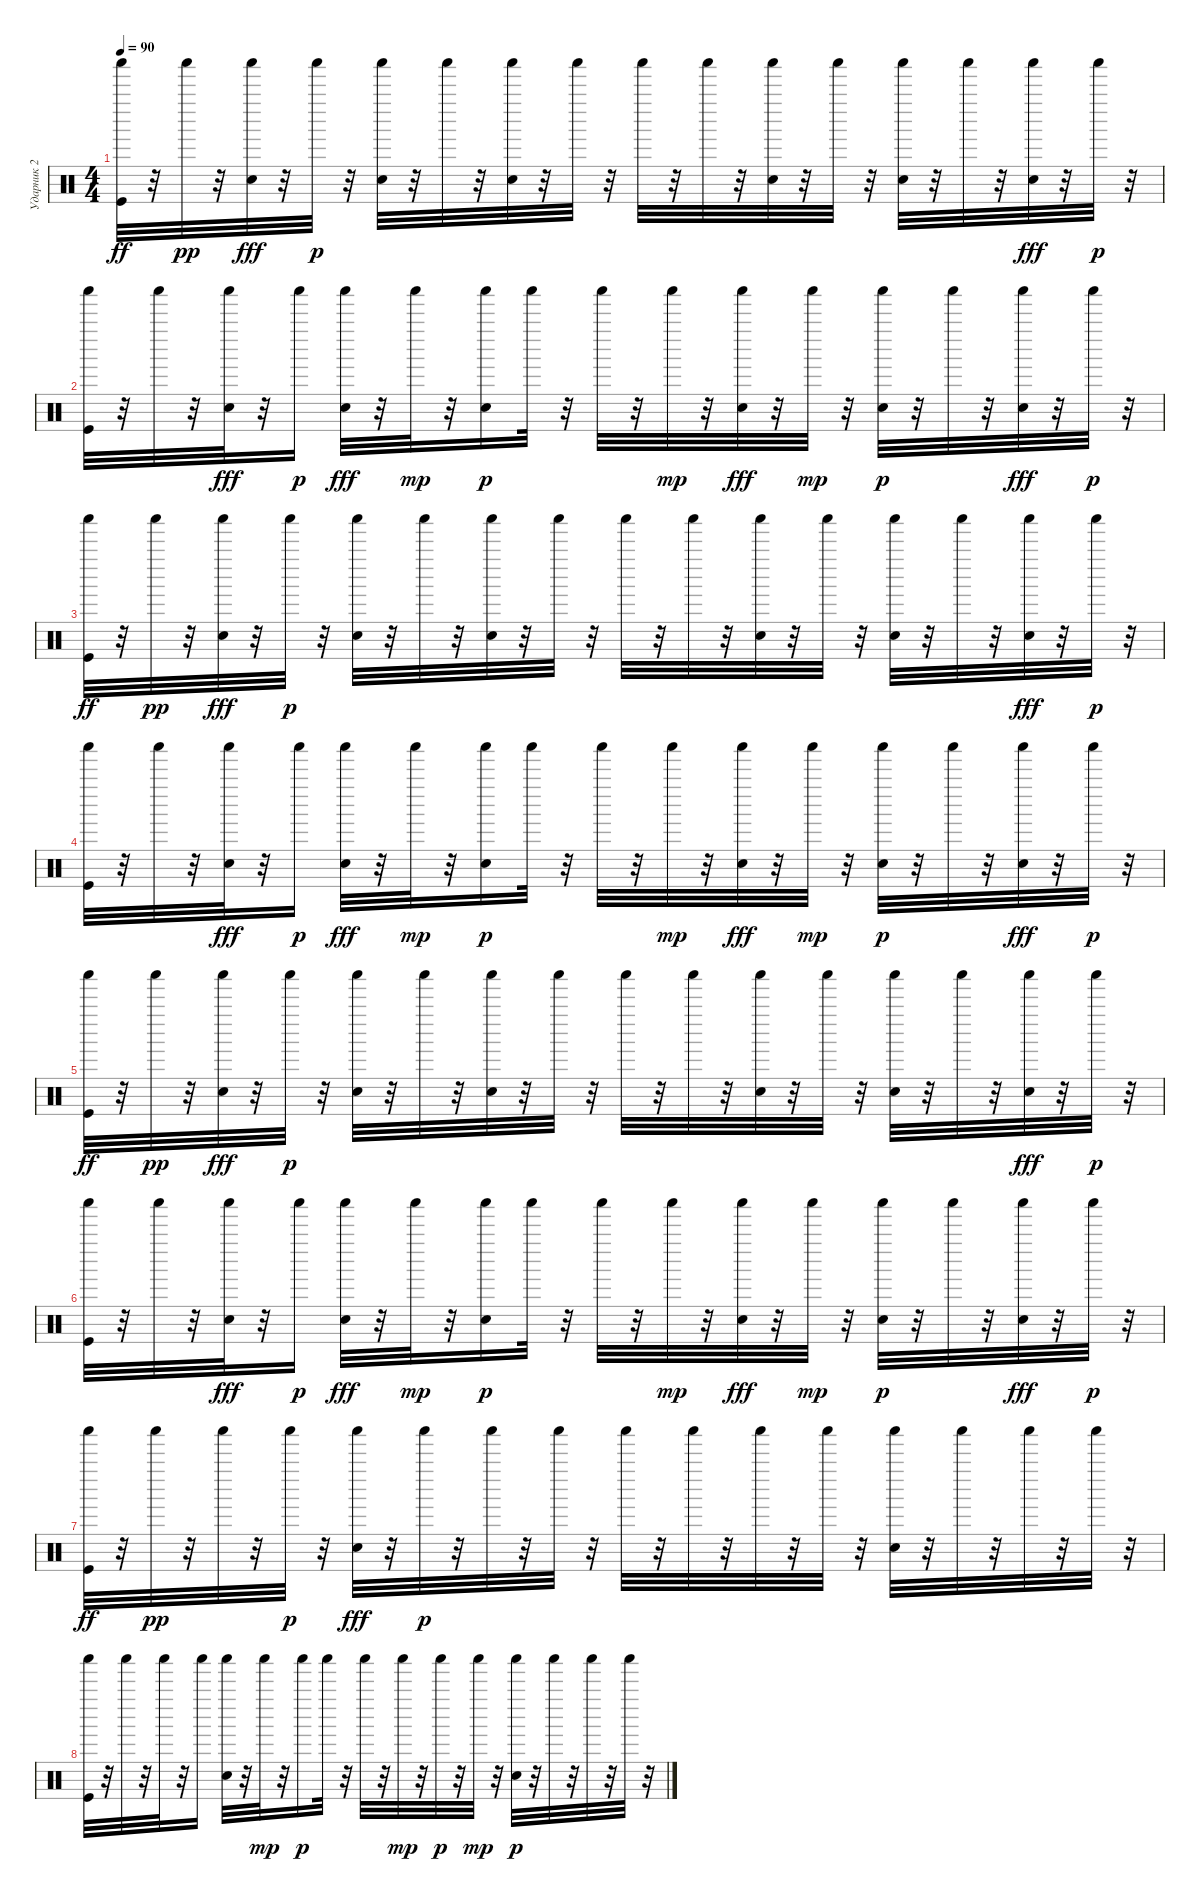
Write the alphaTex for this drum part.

\track ("Ударник 2" "Ударник 2") {instrument percussion}
\staff {score}
\articulation defaults
\ts (4 4)
\tempo 90
\clef neutral
\ks c
("Shaker (hit)" "Kick (hit)").32{dy ff} r.32 "Shaker (hit)".32{dy pp} r.32 ("Shaker (hit)" "Snare (hit)").32{dy fff} r.32 "Shaker (hit)".32{dy p} r.32 ("Electric Snare (hit)" "Shaker (hit)").32 r.32 "Shaker (hit)".32 r.32 ("Snare (hit)" "Shaker (hit)").32 r.32 "Shaker (hit)".32 r.32 "Shaker (hit)".32 r.32 "Shaker (hit)".32 r.32 ("Snare (hit)" "Shaker (hit)").32 r.32 "Shaker (hit)".32 r.32 ("Electric Snare (hit)" "Shaker (hit)").32 r.32 "Shaker (hit)".32 r.32 ("Shaker (hit)" "Snare (hit)").32{dy fff} r.32 "Shaker (hit)".32{dy p} r.32 |
("Kick (hit)" "Shaker (hit)").32 r.32 "Shaker (hit)".32 r.32 ("Shaker (hit)" "Snare (hit)").32{dy fff} r.32 "Shaker (hit)".16{dy p} ("Shaker (hit)" "Electric Snare (hit)").32{dy fff} r.32 "Shaker (hit)".32{dy mp} r.32 ("Snare (hit)" "Shaker (hit)").16{dy p} "Shaker (hit)".32 r.32 "Shaker (hit)".32 r.32 "Shaker (hit)".32{dy mp} r.32 ("Shaker (hit)" "Snare (hit)").32{dy fff} r.32 "Shaker (hit)".32{dy mp} r.32 ("Electric Snare (hit)" "Shaker (hit)").32{dy p} r.32 "Shaker (hit)".32 r.32 ("Shaker (hit)" "Snare (hit)").32{dy fff} r.32 "Shaker (hit)".32{dy p} r.32 |
("Shaker (hit)" "Kick (hit)").32{dy ff} r.32 "Shaker (hit)".32{dy pp} r.32 ("Shaker (hit)" "Snare (hit)").32{dy fff} r.32 "Shaker (hit)".32{dy p} r.32 ("Electric Snare (hit)" "Shaker (hit)").32 r.32 "Shaker (hit)".32 r.32 ("Snare (hit)" "Shaker (hit)").32 r.32 "Shaker (hit)".32 r.32 "Shaker (hit)".32 r.32 "Shaker (hit)".32 r.32 ("Snare (hit)" "Shaker (hit)").32 r.32 "Shaker (hit)".32 r.32 ("Electric Snare (hit)" "Shaker (hit)").32 r.32 "Shaker (hit)".32 r.32 ("Shaker (hit)" "Snare (hit)").32{dy fff} r.32 "Shaker (hit)".32{dy p} r.32 |
("Kick (hit)" "Shaker (hit)").32 r.32 "Shaker (hit)".32 r.32 ("Shaker (hit)" "Snare (hit)").32{dy fff} r.32 "Shaker (hit)".16{dy p} ("Shaker (hit)" "Electric Snare (hit)").32{dy fff} r.32 "Shaker (hit)".32{dy mp} r.32 ("Snare (hit)" "Shaker (hit)").16{dy p} "Shaker (hit)".32 r.32 "Shaker (hit)".32 r.32 "Shaker (hit)".32{dy mp} r.32 ("Shaker (hit)" "Snare (hit)").32{dy fff} r.32 "Shaker (hit)".32{dy mp} r.32 ("Electric Snare (hit)" "Shaker (hit)").32{dy p} r.32 "Shaker (hit)".32 r.32 ("Shaker (hit)" "Snare (hit)").32{dy fff} r.32 "Shaker (hit)".32{dy p} r.32 |
("Shaker (hit)" "Kick (hit)").32{dy ff} r.32 "Shaker (hit)".32{dy pp} r.32 ("Shaker (hit)" "Snare (hit)").32{dy fff} r.32 "Shaker (hit)".32{dy p} r.32 ("Electric Snare (hit)" "Shaker (hit)").32 r.32 "Shaker (hit)".32 r.32 ("Snare (hit)" "Shaker (hit)").32 r.32 "Shaker (hit)".32 r.32 "Shaker (hit)".32 r.32 "Shaker (hit)".32 r.32 ("Snare (hit)" "Shaker (hit)").32 r.32 "Shaker (hit)".32 r.32 ("Electric Snare (hit)" "Shaker (hit)").32 r.32 "Shaker (hit)".32 r.32 ("Shaker (hit)" "Snare (hit)").32{dy fff} r.32 "Shaker (hit)".32{dy p} r.32 |
("Kick (hit)" "Shaker (hit)").32 r.32 "Shaker (hit)".32 r.32 ("Shaker (hit)" "Snare (hit)").32{dy fff} r.32 "Shaker (hit)".16{dy p} ("Shaker (hit)" "Electric Snare (hit)").32{dy fff} r.32 "Shaker (hit)".32{dy mp} r.32 ("Snare (hit)" "Shaker (hit)").16{dy p} "Shaker (hit)".32 r.32 "Shaker (hit)".32 r.32 "Shaker (hit)".32{dy mp} r.32 ("Shaker (hit)" "Snare (hit)").32{dy fff} r.32 "Shaker (hit)".32{dy mp} r.32 ("Electric Snare (hit)" "Shaker (hit)").32{dy p} r.32 "Shaker (hit)".32 r.32 ("Shaker (hit)" "Snare (hit)").32{dy fff} r.32 "Shaker (hit)".32{dy p} r.32 |
("Shaker (hit)" "Kick (hit)").32{dy ff} r.32 "Shaker (hit)".32{dy pp} r.32 "Shaker (hit)".32 r.32 "Shaker (hit)".32{dy p} r.32 ("Shaker (hit)" "Electric Snare (hit)").32{dy fff} r.32 "Shaker (hit)".32{dy p} r.32 "Shaker (hit)".32 r.32 "Shaker (hit)".32 r.32 "Shaker (hit)".32 r.32 "Shaker (hit)".32 r.32 "Shaker (hit)".32 r.32 "Shaker (hit)".32 r.32 ("Electric Snare (hit)" "Shaker (hit)").32 r.32 "Shaker (hit)".32 r.32 "Shaker (hit)".32 r.32 "Shaker (hit)".32 r.32 |
("Kick (hit)" "Shaker (hit)").32 r.32 "Shaker (hit)".32 r.32 "Shaker (hit)".32 r.32 "Shaker (hit)".16 ("Electric Snare (hit)" "Shaker (hit)").32 r.32 "Shaker (hit)".32{dy mp} r.32 "Shaker (hit)".16{dy p} "Shaker (hit)".32 r.32 "Shaker (hit)".32 r.32 "Shaker (hit)".32{dy mp} r.32 "Shaker (hit)".32{dy p} r.32 "Shaker (hit)".32{dy mp} r.32 ("Electric Snare (hit)" "Shaker (hit)").32{dy p} r.32 "Shaker (hit)".32 r.32 "Shaker (hit)".32 r.32 "Shaker (hit)".32 r.32
